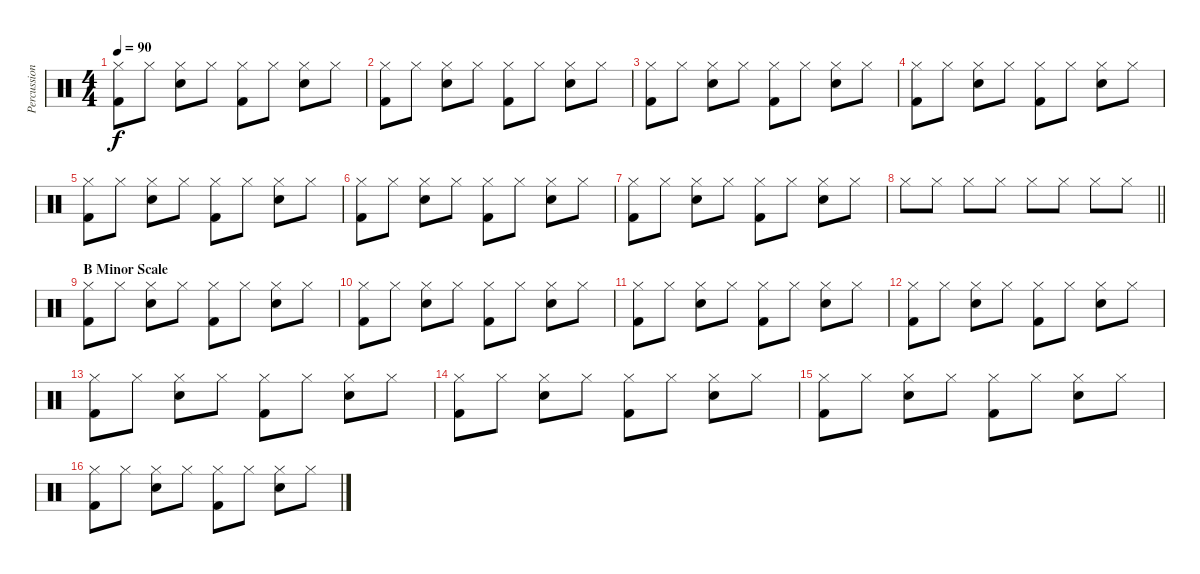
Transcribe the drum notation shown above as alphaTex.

\track ("Percussion" "Percussion") {instrument percussion}
\staff {score}
\articulation defaults
\ts (4 4)
\tempo 90
\clef neutral
\ks c
("Kick (hit) 2" "Hi-Hat (closed)").8{dy f} "Hi-Hat (closed)".8 ("Snare (hit) 2" "Hi-Hat (closed)").8 "Hi-Hat (closed)".8 ("Kick (hit) 2" "Hi-Hat (closed)").8 "Hi-Hat (closed)".8 ("Snare (hit) 2" "Hi-Hat (closed)").8 "Hi-Hat (closed)".8 |
("Kick (hit) 2" "Hi-Hat (closed)").8 "Hi-Hat (closed)".8 ("Snare (hit) 2" "Hi-Hat (closed)").8 "Hi-Hat (closed)".8 ("Kick (hit) 2" "Hi-Hat (closed)").8 "Hi-Hat (closed)".8 ("Snare (hit) 2" "Hi-Hat (closed)").8 "Hi-Hat (closed)".8 |
("Kick (hit) 2" "Hi-Hat (closed)").8 "Hi-Hat (closed)".8 ("Snare (hit) 2" "Hi-Hat (closed)").8 "Hi-Hat (closed)".8 ("Kick (hit) 2" "Hi-Hat (closed)").8 "Hi-Hat (closed)".8 ("Snare (hit) 2" "Hi-Hat (closed)").8 "Hi-Hat (closed)".8 |
("Kick (hit) 2" "Hi-Hat (closed)").8 "Hi-Hat (closed)".8 ("Snare (hit) 2" "Hi-Hat (closed)").8 "Hi-Hat (closed)".8 ("Kick (hit) 2" "Hi-Hat (closed)").8 "Hi-Hat (closed)".8 ("Snare (hit) 2" "Hi-Hat (closed)").8 "Hi-Hat (closed)".8 |
("Kick (hit) 2" "Hi-Hat (closed)").8 "Hi-Hat (closed)".8 ("Snare (hit) 2" "Hi-Hat (closed)").8 "Hi-Hat (closed)".8 ("Kick (hit) 2" "Hi-Hat (closed)").8 "Hi-Hat (closed)".8 ("Snare (hit) 2" "Hi-Hat (closed)").8 "Hi-Hat (closed)".8 |
("Kick (hit) 2" "Hi-Hat (closed)").8 "Hi-Hat (closed)".8 ("Snare (hit) 2" "Hi-Hat (closed)").8 "Hi-Hat (closed)".8 ("Kick (hit) 2" "Hi-Hat (closed)").8 "Hi-Hat (closed)".8 ("Snare (hit) 2" "Hi-Hat (closed)").8 "Hi-Hat (closed)".8 |
("Kick (hit) 2" "Hi-Hat (closed)").8 "Hi-Hat (closed)".8 ("Snare (hit) 2" "Hi-Hat (closed)").8 "Hi-Hat (closed)".8 ("Kick (hit) 2" "Hi-Hat (closed)").8 "Hi-Hat (closed)".8 ("Snare (hit) 2" "Hi-Hat (closed)").8 "Hi-Hat (closed)".8 |
\barLineRight lightlight "Hi-Hat (closed)".8 "Hi-Hat (closed)".8 "Hi-Hat (closed)".8 "Hi-Hat (closed)".8 "Hi-Hat (closed)".8 "Hi-Hat (closed)".8 "Hi-Hat (closed)".8 "Hi-Hat (closed)".8
|
\section ("" "B Minor Scale")
("Kick (hit) 2" "Hi-Hat (closed)").8 "Hi-Hat (closed)".8 ("Snare (hit) 2" "Hi-Hat (closed)").8 "Hi-Hat (closed)".8 ("Kick (hit) 2" "Hi-Hat (closed)").8 "Hi-Hat (closed)".8 ("Snare (hit) 2" "Hi-Hat (closed)").8 "Hi-Hat (closed)".8 |
("Kick (hit) 2" "Hi-Hat (closed)").8 "Hi-Hat (closed)".8 ("Snare (hit) 2" "Hi-Hat (closed)").8 "Hi-Hat (closed)".8 ("Kick (hit) 2" "Hi-Hat (closed)").8 "Hi-Hat (closed)".8 ("Snare (hit) 2" "Hi-Hat (closed)").8 "Hi-Hat (closed)".8 |
("Kick (hit) 2" "Hi-Hat (closed)").8 "Hi-Hat (closed)".8 ("Snare (hit) 2" "Hi-Hat (closed)").8 "Hi-Hat (closed)".8 ("Kick (hit) 2" "Hi-Hat (closed)").8 "Hi-Hat (closed)".8 ("Snare (hit) 2" "Hi-Hat (closed)").8 "Hi-Hat (closed)".8 |
("Kick (hit) 2" "Hi-Hat (closed)").8 "Hi-Hat (closed)".8 ("Snare (hit) 2" "Hi-Hat (closed)").8 "Hi-Hat (closed)".8 ("Kick (hit) 2" "Hi-Hat (closed)").8 "Hi-Hat (closed)".8 ("Snare (hit) 2" "Hi-Hat (closed)").8 "Hi-Hat (closed)".8 |
("Kick (hit) 2" "Hi-Hat (closed)").8 "Hi-Hat (closed)".8 ("Snare (hit) 2" "Hi-Hat (closed)").8 "Hi-Hat (closed)".8 ("Kick (hit) 2" "Hi-Hat (closed)").8 "Hi-Hat (closed)".8 ("Snare (hit) 2" "Hi-Hat (closed)").8 "Hi-Hat (closed)".8 |
("Kick (hit) 2" "Hi-Hat (closed)").8 "Hi-Hat (closed)".8 ("Snare (hit) 2" "Hi-Hat (closed)").8 "Hi-Hat (closed)".8 ("Kick (hit) 2" "Hi-Hat (closed)").8 "Hi-Hat (closed)".8 ("Snare (hit) 2" "Hi-Hat (closed)").8 "Hi-Hat (closed)".8 |
("Kick (hit) 2" "Hi-Hat (closed)").8 "Hi-Hat (closed)".8 ("Snare (hit) 2" "Hi-Hat (closed)").8 "Hi-Hat (closed)".8 ("Kick (hit) 2" "Hi-Hat (closed)").8 "Hi-Hat (closed)".8 ("Snare (hit) 2" "Hi-Hat (closed)").8 "Hi-Hat (closed)".8 |
("Kick (hit) 2" "Hi-Hat (closed)").8 "Hi-Hat (closed)".8 ("Snare (hit) 2" "Hi-Hat (closed)").8 "Hi-Hat (closed)".8 ("Kick (hit) 2" "Hi-Hat (closed)").8 "Hi-Hat (closed)".8 ("Snare (hit) 2" "Hi-Hat (closed)").8 "Hi-Hat (closed)".8
